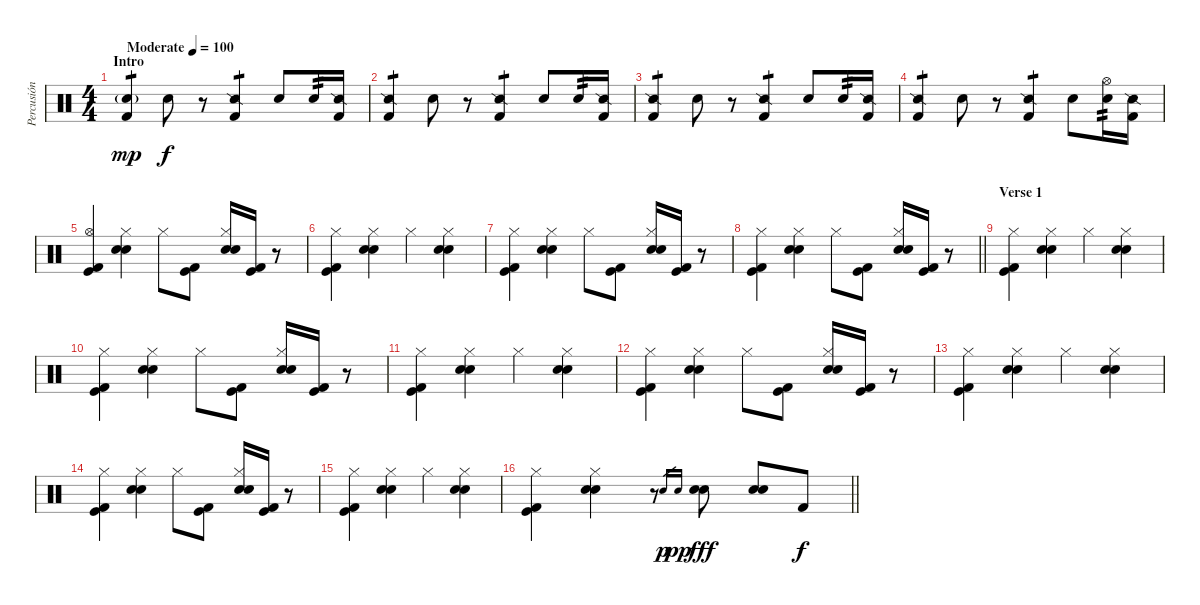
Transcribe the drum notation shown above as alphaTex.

\track ("Percusión" "Percusión") {instrument percussion}
\staff {score}
\articulation defaults
\ts (4 4)
\section ("" "Intro")
\tempo (100 "Moderate")
\clef neutral
\ks c
("Electric Snare (hit)"{g} "Kick (hit) 2").4{tp 1 dy mp} "Electric Snare (hit)".8{dy f} r.8 ("Snare (side stick) 2" "Kick (hit) 2").4{tp 1} "Electric Snare (hit)".8 "Electric Snare (hit)".16{tp 2} ("Snare (side stick) 2" "Kick (hit) 2").16 |
("Snare (side stick) 2" "Kick (hit) 2").4{tp 1} "Electric Snare (hit)".8 r.8 ("Snare (side stick) 2" "Kick (hit) 2").4{tp 1} "Electric Snare (hit)".8 "Electric Snare (hit)".16{tp 2} ("Snare (side stick) 2" "Kick (hit) 2").16 |
("Snare (side stick) 2" "Kick (hit) 2").4{tp 1} "Electric Snare (hit)".8 r.8 ("Snare (side stick) 2" "Kick (hit) 2").4{tp 1} "Electric Snare (hit)".8 "Electric Snare (hit)".16{tp 2} ("Snare (side stick) 2" "Kick (hit) 2").16 |
("Snare (side stick) 2" "Kick (hit) 2").4{tp 1} "Electric Snare (hit)".8 r.8 ("Snare (side stick) 2" "Kick (hit) 2").4{tp 1} "Electric Snare (hit)".8 ("Hi-Hat (open)" "Electric Snare (hit)").16{tp 2} ("Snare (side stick) 2" "Kick (hit) 2").16 |
("Hi-Hat (open)" "Kick (hit)" "Kick (hit) 2").4 ("Hi-Hat (closed)" "Snare (hit) 2" "Electric Snare (hit)").4 "Hi-Hat (closed)".8 ("Kick (hit)" "Kick (hit) 2").8 ("Hi-Hat (closed)" "Snare (hit) 2" "Electric Snare (hit)").16 ("Kick (hit)" "Kick (hit) 2").16 r.8 |
("Hi-Hat (closed)" "Kick (hit)" "Kick (hit) 2").4 ("Hi-Hat (closed)" "Snare (hit) 2" "Electric Snare (hit)").4 "Hi-Hat (closed)".4 ("Hi-Hat (closed)" "Snare (hit) 2" "Electric Snare (hit)").4 |
("Hi-Hat (closed)" "Kick (hit)" "Kick (hit) 2").4 ("Hi-Hat (closed)" "Snare (hit) 2" "Electric Snare (hit)").4 "Hi-Hat (closed)".8 ("Kick (hit)" "Kick (hit) 2").8 ("Hi-Hat (closed)" "Snare (hit) 2" "Electric Snare (hit)").16 ("Kick (hit)" "Kick (hit) 2").16 r.8 |
\barLineRight lightlight
("Hi-Hat (closed)" "Kick (hit)" "Kick (hit) 2").4 ("Hi-Hat (closed)" "Snare (hit) 2" "Electric Snare (hit)").4 "Hi-Hat (closed)".8 ("Kick (hit)" "Kick (hit) 2").8 ("Hi-Hat (closed)" "Snare (hit) 2" "Electric Snare (hit)").16 ("Kick (hit)" "Kick (hit) 2").16 r.8 |
\section ("" "Verse 1")
("Hi-Hat (closed)" "Kick (hit)" "Kick (hit) 2").4 ("Hi-Hat (closed)" "Snare (hit) 2" "Electric Snare (hit)").4 "Hi-Hat (closed)".4 ("Hi-Hat (closed)" "Snare (hit) 2" "Electric Snare (hit)").4 |
("Hi-Hat (closed)" "Kick (hit)" "Kick (hit) 2").4 ("Hi-Hat (closed)" "Snare (hit) 2" "Electric Snare (hit)").4 "Hi-Hat (closed)".8 ("Kick (hit)" "Kick (hit) 2").8 ("Hi-Hat (closed)" "Snare (hit) 2" "Electric Snare (hit)").16 ("Kick (hit)" "Kick (hit) 2").16 r.8 |
("Hi-Hat (closed)" "Kick (hit)" "Kick (hit) 2").4 ("Hi-Hat (closed)" "Snare (hit) 2" "Electric Snare (hit)").4 "Hi-Hat (closed)".4 ("Hi-Hat (closed)" "Snare (hit) 2" "Electric Snare (hit)").4 |
("Hi-Hat (closed)" "Kick (hit)" "Kick (hit) 2").4 ("Hi-Hat (closed)" "Snare (hit) 2" "Electric Snare (hit)").4 "Hi-Hat (closed)".8 ("Kick (hit)" "Kick (hit) 2").8 ("Hi-Hat (closed)" "Snare (hit) 2" "Electric Snare (hit)").16 ("Kick (hit)" "Kick (hit) 2").16 r.8 |
("Hi-Hat (closed)" "Kick (hit)" "Kick (hit) 2").4 ("Hi-Hat (closed)" "Snare (hit) 2" "Electric Snare (hit)").4 "Hi-Hat (closed)".4 ("Hi-Hat (closed)" "Snare (hit) 2" "Electric Snare (hit)").4 |
("Hi-Hat (closed)" "Kick (hit)" "Kick (hit) 2").4 ("Hi-Hat (closed)" "Snare (hit) 2" "Electric Snare (hit)").4 "Hi-Hat (closed)".8 ("Kick (hit)" "Kick (hit) 2").8 ("Hi-Hat (closed)" "Snare (hit) 2" "Electric Snare (hit)").16 ("Kick (hit)" "Kick (hit) 2").16 r.8 |
("Hi-Hat (closed)" "Kick (hit)" "Kick (hit) 2").4 ("Hi-Hat (closed)" "Snare (hit) 2" "Electric Snare (hit)").4 "Hi-Hat (closed)".4 ("Hi-Hat (closed)" "Snare (hit) 2" "Electric Snare (hit)").4 |
\barLineRight lightlight
("Hi-Hat (closed)" "Kick (hit)" "Kick (hit) 2").4 ("Hi-Hat (closed)" "Snare (hit) 2" "Electric Snare (hit)").4 r.8 "Snare (hit) 2".16{gr dy p} "Electric Snare (hit)".16{gr dy pp} ("Snare (hit) 2" "Electric Snare (hit)").8{dy fff} ("Snare (hit) 2" "Electric Snare (hit)").8 "Kick (hit) 2".8{dy f}
